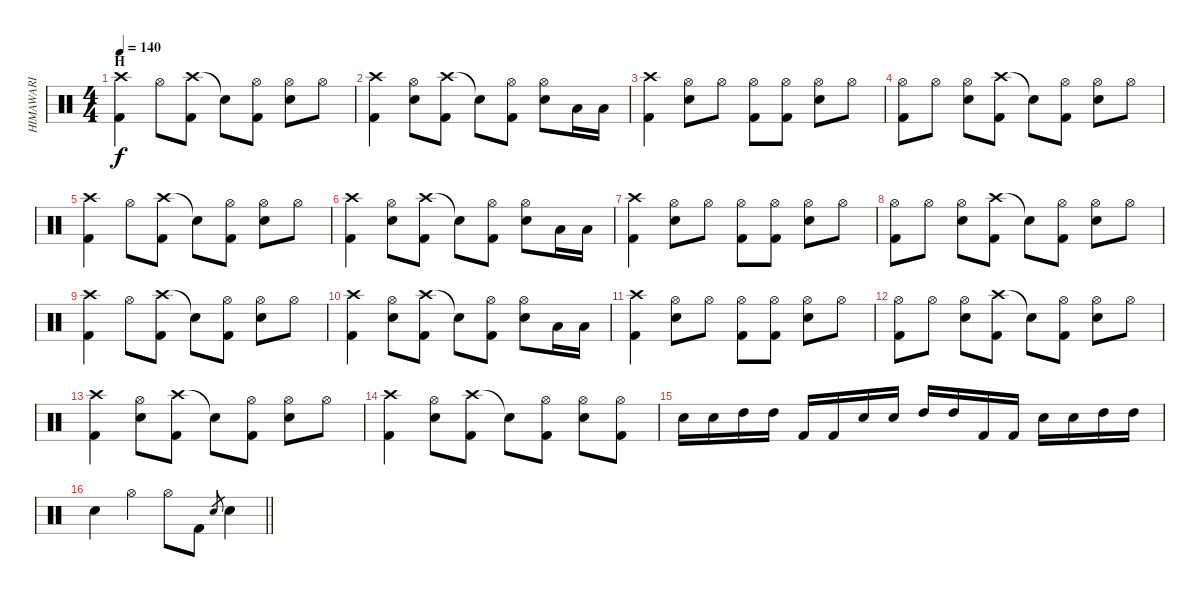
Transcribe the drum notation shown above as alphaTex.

\track ("HIMAWARI" "HIMAWARI") {instrument percussion}
\staff {score}
\articulation defaults
\ts (4 4)
\section ("" "H")
\tempo 140
\clef neutral
\ks c
("Crash high (hit)" "Kick (hit) 2").4{dy f} "Hi-Hat (open)".8 ("Crash high (hit)" "Kick (hit) 2").8 "Snare (hit)"{t}.8 ("Hi-Hat (open)" "Kick (hit) 2").8 ("Hi-Hat (open)" "Snare (hit) 2").8 "Hi-Hat (open)".8 |
("Crash high (hit)" "Kick (hit) 2").4 ("Hi-Hat (open)" "Snare (hit) 2").8 ("Crash high (hit)" "Kick (hit) 2").8 "Snare (hit)"{t}.8 ("Hi-Hat (open)" "Kick (hit) 2").8 ("Hi-Hat (open)" "Snare (hit) 2").8 "Low Tom (hit)".16 "Low Tom (hit)".16 |
("Crash high (hit)" "Kick (hit) 2").4 ("Hi-Hat (open)" "Snare (hit) 2").8 "Hi-Hat (open)".8 ("Hi-Hat (open)" "Kick (hit) 2").8 ("Hi-Hat (open)" "Kick (hit) 2").8 ("Hi-Hat (open)" "Snare (hit) 2").8 "Hi-Hat (open)".8 |
("Hi-Hat (open)" "Kick (hit) 2").8 "Hi-Hat (open)".8 ("Hi-Hat (open)" "Snare (hit) 2").8 ("Crash high (hit)" "Kick (hit) 2").8 "Snare (hit)"{t}.8 ("Hi-Hat (open)" "Kick (hit) 2").8 ("Hi-Hat (open)" "Snare (hit) 2").8 "Hi-Hat (open)".8 |
("Crash high (hit)" "Kick (hit) 2").4 "Hi-Hat (open)".8 ("Crash high (hit)" "Kick (hit) 2").8 "Snare (hit)"{t}.8 ("Hi-Hat (open)" "Kick (hit) 2").8 ("Hi-Hat (open)" "Snare (hit) 2").8 "Hi-Hat (open)".8 |
("Crash high (hit)" "Kick (hit) 2").4 ("Hi-Hat (open)" "Snare (hit) 2").8 ("Crash high (hit)" "Kick (hit) 2").8 "Snare (hit)"{t}.8 ("Hi-Hat (open)" "Kick (hit) 2").8 ("Hi-Hat (open)" "Snare (hit) 2").8 "Low Tom (hit)".16 "Low Tom (hit)".16 |
("Crash high (hit)" "Kick (hit) 2").4 ("Hi-Hat (open)" "Snare (hit) 2").8 "Hi-Hat (open)".8 ("Hi-Hat (open)" "Kick (hit) 2").8 ("Hi-Hat (open)" "Kick (hit) 2").8 ("Hi-Hat (open)" "Snare (hit) 2").8 "Hi-Hat (open)".8 |
("Hi-Hat (open)" "Kick (hit) 2").8 "Hi-Hat (open)".8 ("Hi-Hat (open)" "Snare (hit) 2").8 ("Crash high (hit)" "Kick (hit) 2").8 "Snare (hit)"{t}.8 ("Hi-Hat (open)" "Kick (hit) 2").8 ("Hi-Hat (open)" "Snare (hit) 2").8 "Hi-Hat (open)".8 |
("Crash high (hit)" "Kick (hit) 2").4 "Hi-Hat (open)".8 ("Crash high (hit)" "Kick (hit) 2").8 "Snare (hit)"{t}.8 ("Hi-Hat (open)" "Kick (hit) 2").8 ("Hi-Hat (open)" "Snare (hit) 2").8 "Hi-Hat (open)".8 |
("Crash high (hit)" "Kick (hit) 2").4 ("Hi-Hat (open)" "Snare (hit) 2").8 ("Crash high (hit)" "Kick (hit) 2").8 "Snare (hit)"{t}.8 ("Hi-Hat (open)" "Kick (hit) 2").8 ("Hi-Hat (open)" "Snare (hit) 2").8 "Low Tom (hit)".16 "Low Tom (hit)".16 |
("Crash high (hit)" "Kick (hit) 2").4 ("Hi-Hat (open)" "Snare (hit) 2").8 "Hi-Hat (open)".8 ("Hi-Hat (open)" "Kick (hit) 2").8 ("Hi-Hat (open)" "Kick (hit) 2").8 ("Hi-Hat (open)" "Snare (hit) 2").8 "Hi-Hat (open)".8 |
("Hi-Hat (open)" "Kick (hit) 2").8 "Hi-Hat (open)".8 ("Hi-Hat (open)" "Snare (hit) 2").8 ("Crash high (hit)" "Kick (hit) 2").8 "Snare (hit)"{t}.8 ("Hi-Hat (open)" "Kick (hit) 2").8 ("Hi-Hat (open)" "Snare (hit) 2").8 "Hi-Hat (open)".8 |
("Crash high (hit)" "Kick (hit) 2").4 ("Hi-Hat (open)" "Snare (hit) 2").8 ("Crash high (hit)" "Kick (hit) 2").8 "Snare (hit)"{t}.8 ("Hi-Hat (open)" "Kick (hit) 2").8 ("Hi-Hat (open)" "Snare (hit) 2").8 "Hi-Hat (open)".8 |
("Crash high (hit)" "Kick (hit) 2").4 ("Hi-Hat (open)" "Snare (hit) 2").8 ("Crash high (hit)" "Kick (hit) 2").8 "Snare (hit)"{t}.8 ("Hi-Hat (open)" "Kick (hit) 2").8 ("Hi-Hat (open)" "Snare (hit) 2").8 ("Hi-Hat (open)" "Kick (hit) 2").8 |
"Snare (hit) 2".16 "Snare (hit) 2".16 "High Tom (hit)".16 "High Tom (hit)".16 "Kick (hit) 2".16 "Kick (hit) 2".16 "Snare (hit) 2".16 "Snare (hit) 2".16 "High Tom (hit)".16 "High Tom (hit)".16 "Kick (hit) 2".16 "Kick (hit) 2".16 "Snare (hit) 2".16 "Snare (hit) 2".16 "High Tom (hit)".16 "High Tom (hit)".16 |
\barLineRight lightlight "Snare (hit) 2".4 "Hi-Hat (open)".4 "Hi-Hat (open)".8 "Kick (hit) 2".8 "Snare (hit) 2".8{gr} "Snare (hit) 2".4
